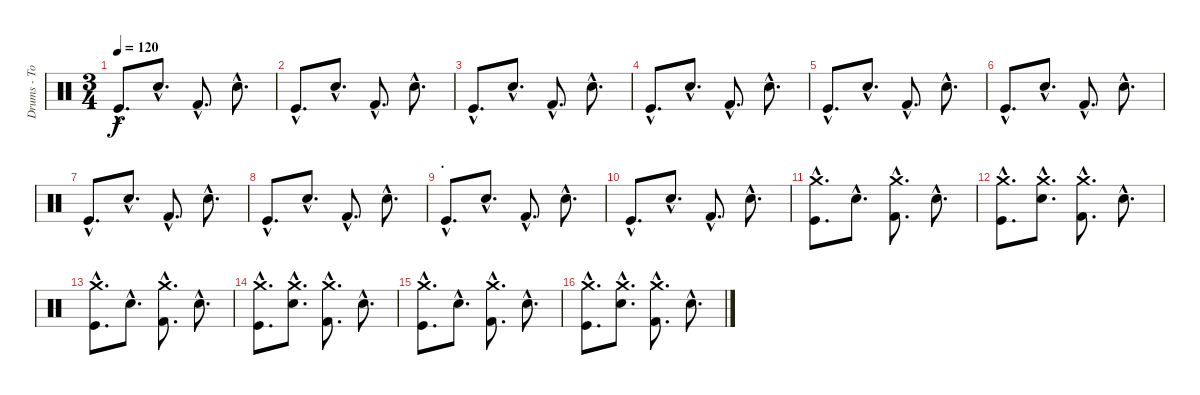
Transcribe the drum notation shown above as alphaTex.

\track ("Drums - Tom" "Drums - To") {instrument percussion}
\staff {score}
\articulation defaults
\ts (3 4)
\tempo 120
\clef neutral
\ks c "Kick (hit)"{hac}.8{d dy f} "Snare (hit) 2"{hac}.8{d} "Kick (hit) 2"{hac}.8{d} "Snare (hit) 2"{hac}.8{d}
|
"Kick (hit)"{hac}.8{d} "Snare (hit) 2"{hac}.8{d} "Kick (hit) 2"{hac}.8{d} "Snare (hit) 2"{hac}.8{d} |
"Kick (hit)"{hac}.8{d} "Snare (hit) 2"{hac}.8{d} "Kick (hit) 2"{hac}.8{d} "Snare (hit) 2"{hac}.8{d} |
"Kick (hit)"{hac}.8{d} "Snare (hit) 2"{hac}.8{d} "Kick (hit) 2"{hac}.8{d} "Snare (hit) 2"{hac}.8{d} |
"Kick (hit)"{hac}.8{d} "Snare (hit) 2"{hac}.8{d} "Kick (hit) 2"{hac}.8{d} "Snare (hit) 2"{hac}.8{d} |
"Kick (hit)"{hac}.8{d} "Snare (hit) 2"{hac}.8{d} "Kick (hit) 2"{hac}.8{d} "Snare (hit) 2"{hac}.8{d} |
"Kick (hit)"{hac}.8{d} "Snare (hit) 2"{hac}.8{d} "Kick (hit) 2"{hac}.8{d} "Snare (hit) 2"{hac}.8{d} |
"Kick (hit)"{hac}.8{d} "Snare (hit) 2"{hac}.8{d} "Kick (hit) 2"{hac}.8{d} "Snare (hit) 2"{hac}.8{d} |
\section ("" ".")
"Kick (hit)"{hac}.8{d} "Snare (hit) 2"{hac}.8{d} "Kick (hit) 2"{hac}.8{d} "Snare (hit) 2"{hac}.8{d} |
"Kick (hit)"{hac}.8{d} "Snare (hit) 2"{hac}.8{d} "Kick (hit) 2"{hac}.8{d} "Snare (hit) 2"{hac}.8{d} |
("Kick (hit)"{hac} "Crash medium (hit)"{hac}).8{d} "Snare (hit) 2"{hac}.8{d} ("Kick (hit) 2"{hac} "Crash medium (hit)"{hac}).8{d} "Snare (hit) 2"{hac}.8{d} |
("Kick (hit)"{hac} "Crash medium (hit)"{hac}).8{d} ("Snare (hit) 2"{hac} "Crash medium (hit)"{hac}).8{d} ("Kick (hit) 2"{hac} "Crash medium (hit)"{hac}).8{d} "Snare (hit) 2"{hac}.8{d} |
("Kick (hit)"{hac} "Crash medium (hit)"{hac}).8{d} "Snare (hit) 2"{hac}.8{d} ("Kick (hit) 2"{hac} "Crash medium (hit)"{hac}).8{d} "Snare (hit) 2"{hac}.8{d} |
("Kick (hit)"{hac} "Crash medium (hit)"{hac}).8{d} ("Snare (hit) 2"{hac} "Crash medium (hit)"{hac}).8{d} ("Kick (hit) 2"{hac} "Crash medium (hit)"{hac}).8{d} "Snare (hit) 2"{hac}.8{d} |
("Kick (hit)"{hac} "Crash medium (hit)"{hac}).8{d} "Snare (hit) 2"{hac}.8{d} ("Kick (hit) 2"{hac} "Crash medium (hit)"{hac}).8{d} "Snare (hit) 2"{hac}.8{d} |
("Kick (hit)"{hac} "Crash medium (hit)"{hac}).8{d} ("Snare (hit) 2"{hac} "Crash medium (hit)"{hac}).8{d} ("Kick (hit) 2"{hac} "Crash medium (hit)"{hac}).8{d} "Snare (hit) 2"{hac}.8{d}
